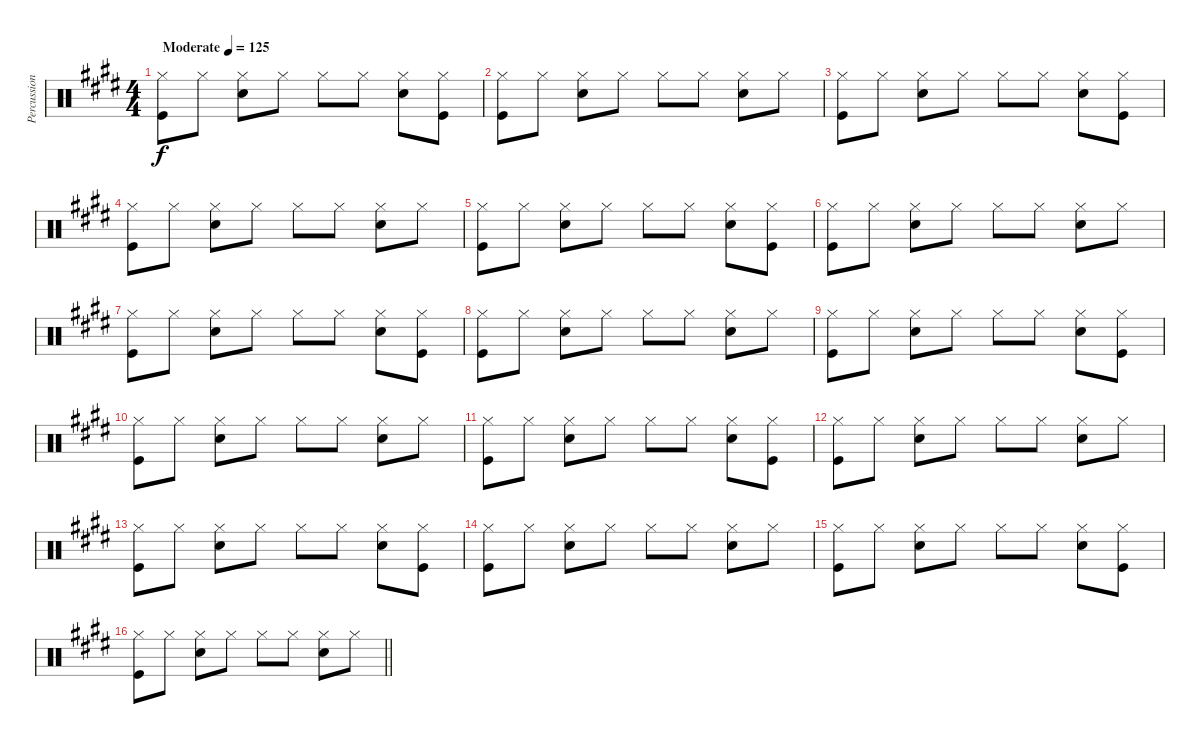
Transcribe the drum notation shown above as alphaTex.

\track ("Percussion" "Percussion") {instrument percussion}
\staff {score}
\articulation defaults
\ts (4 4)
\tempo (125 "Moderate")
\clef neutral
\ks c#minor
("Hi-Hat (closed)" "Kick (hit)").8{dy f} "Hi-Hat (closed)".8 ("Hi-Hat (closed)" "Electric Snare (hit)").8 "Hi-Hat (closed)".8 "Hi-Hat (closed)".8 "Hi-Hat (closed)".8 ("Hi-Hat (closed)" "Electric Snare (hit)").8 ("Hi-Hat (closed)" "Kick (hit)").8 |
("Hi-Hat (closed)" "Kick (hit)").8 "Hi-Hat (closed)".8 ("Hi-Hat (closed)" "Electric Snare (hit)").8 "Hi-Hat (closed)".8 "Hi-Hat (closed)".8 "Hi-Hat (closed)".8 ("Hi-Hat (closed)" "Electric Snare (hit)").8 "Hi-Hat (closed)".8 |
("Hi-Hat (closed)" "Kick (hit)").8 "Hi-Hat (closed)".8 ("Hi-Hat (closed)" "Electric Snare (hit)").8 "Hi-Hat (closed)".8 "Hi-Hat (closed)".8 "Hi-Hat (closed)".8 ("Hi-Hat (closed)" "Electric Snare (hit)").8 ("Hi-Hat (closed)" "Kick (hit)").8 |
("Hi-Hat (closed)" "Kick (hit)").8 "Hi-Hat (closed)".8 ("Hi-Hat (closed)" "Electric Snare (hit)").8 "Hi-Hat (closed)".8 "Hi-Hat (closed)".8 "Hi-Hat (closed)".8 ("Hi-Hat (closed)" "Electric Snare (hit)").8 "Hi-Hat (closed)".8 |
("Hi-Hat (closed)" "Kick (hit)").8 "Hi-Hat (closed)".8 ("Hi-Hat (closed)" "Electric Snare (hit)").8 "Hi-Hat (closed)".8 "Hi-Hat (closed)".8 "Hi-Hat (closed)".8 ("Hi-Hat (closed)" "Electric Snare (hit)").8 ("Hi-Hat (closed)" "Kick (hit)").8 |
("Hi-Hat (closed)" "Kick (hit)").8 "Hi-Hat (closed)".8 ("Hi-Hat (closed)" "Electric Snare (hit)").8 "Hi-Hat (closed)".8 "Hi-Hat (closed)".8 "Hi-Hat (closed)".8 ("Hi-Hat (closed)" "Electric Snare (hit)").8 "Hi-Hat (closed)".8 |
("Hi-Hat (closed)" "Kick (hit)").8 "Hi-Hat (closed)".8 ("Hi-Hat (closed)" "Electric Snare (hit)").8 "Hi-Hat (closed)".8 "Hi-Hat (closed)".8 "Hi-Hat (closed)".8 ("Hi-Hat (closed)" "Electric Snare (hit)").8 ("Hi-Hat (closed)" "Kick (hit)").8 |
("Hi-Hat (closed)" "Kick (hit)").8 "Hi-Hat (closed)".8 ("Hi-Hat (closed)" "Electric Snare (hit)").8 "Hi-Hat (closed)".8 "Hi-Hat (closed)".8 "Hi-Hat (closed)".8 ("Hi-Hat (closed)" "Electric Snare (hit)").8 "Hi-Hat (closed)".8 |
("Hi-Hat (closed)" "Kick (hit)").8 "Hi-Hat (closed)".8 ("Hi-Hat (closed)" "Electric Snare (hit)").8 "Hi-Hat (closed)".8 "Hi-Hat (closed)".8 "Hi-Hat (closed)".8 ("Hi-Hat (closed)" "Electric Snare (hit)").8 ("Hi-Hat (closed)" "Kick (hit)").8 |
("Hi-Hat (closed)" "Kick (hit)").8 "Hi-Hat (closed)".8 ("Hi-Hat (closed)" "Electric Snare (hit)").8 "Hi-Hat (closed)".8 "Hi-Hat (closed)".8 "Hi-Hat (closed)".8 ("Hi-Hat (closed)" "Electric Snare (hit)").8 "Hi-Hat (closed)".8 |
("Hi-Hat (closed)" "Kick (hit)").8 "Hi-Hat (closed)".8 ("Hi-Hat (closed)" "Electric Snare (hit)").8 "Hi-Hat (closed)".8 "Hi-Hat (closed)".8 "Hi-Hat (closed)".8 ("Hi-Hat (closed)" "Electric Snare (hit)").8 ("Hi-Hat (closed)" "Kick (hit)").8 |
("Hi-Hat (closed)" "Kick (hit)").8 "Hi-Hat (closed)".8 ("Hi-Hat (closed)" "Electric Snare (hit)").8 "Hi-Hat (closed)".8 "Hi-Hat (closed)".8 "Hi-Hat (closed)".8 ("Hi-Hat (closed)" "Electric Snare (hit)").8 "Hi-Hat (closed)".8 |
("Hi-Hat (closed)" "Kick (hit)").8 "Hi-Hat (closed)".8 ("Hi-Hat (closed)" "Electric Snare (hit)").8 "Hi-Hat (closed)".8 "Hi-Hat (closed)".8 "Hi-Hat (closed)".8 ("Hi-Hat (closed)" "Electric Snare (hit)").8 ("Hi-Hat (closed)" "Kick (hit)").8 |
("Hi-Hat (closed)" "Kick (hit)").8 "Hi-Hat (closed)".8 ("Hi-Hat (closed)" "Electric Snare (hit)").8 "Hi-Hat (closed)".8 "Hi-Hat (closed)".8 "Hi-Hat (closed)".8 ("Hi-Hat (closed)" "Electric Snare (hit)").8 "Hi-Hat (closed)".8 |
("Hi-Hat (closed)" "Kick (hit)").8 "Hi-Hat (closed)".8 ("Hi-Hat (closed)" "Electric Snare (hit)").8 "Hi-Hat (closed)".8 "Hi-Hat (closed)".8 "Hi-Hat (closed)".8 ("Hi-Hat (closed)" "Electric Snare (hit)").8 ("Hi-Hat (closed)" "Kick (hit)").8 |
\barLineRight lightlight
("Hi-Hat (closed)" "Kick (hit)").8 "Hi-Hat (closed)".8 ("Hi-Hat (closed)" "Electric Snare (hit)").8 "Hi-Hat (closed)".8 "Hi-Hat (closed)".8 "Hi-Hat (closed)".8 ("Hi-Hat (closed)" "Electric Snare (hit)").8 "Hi-Hat (closed)".8
